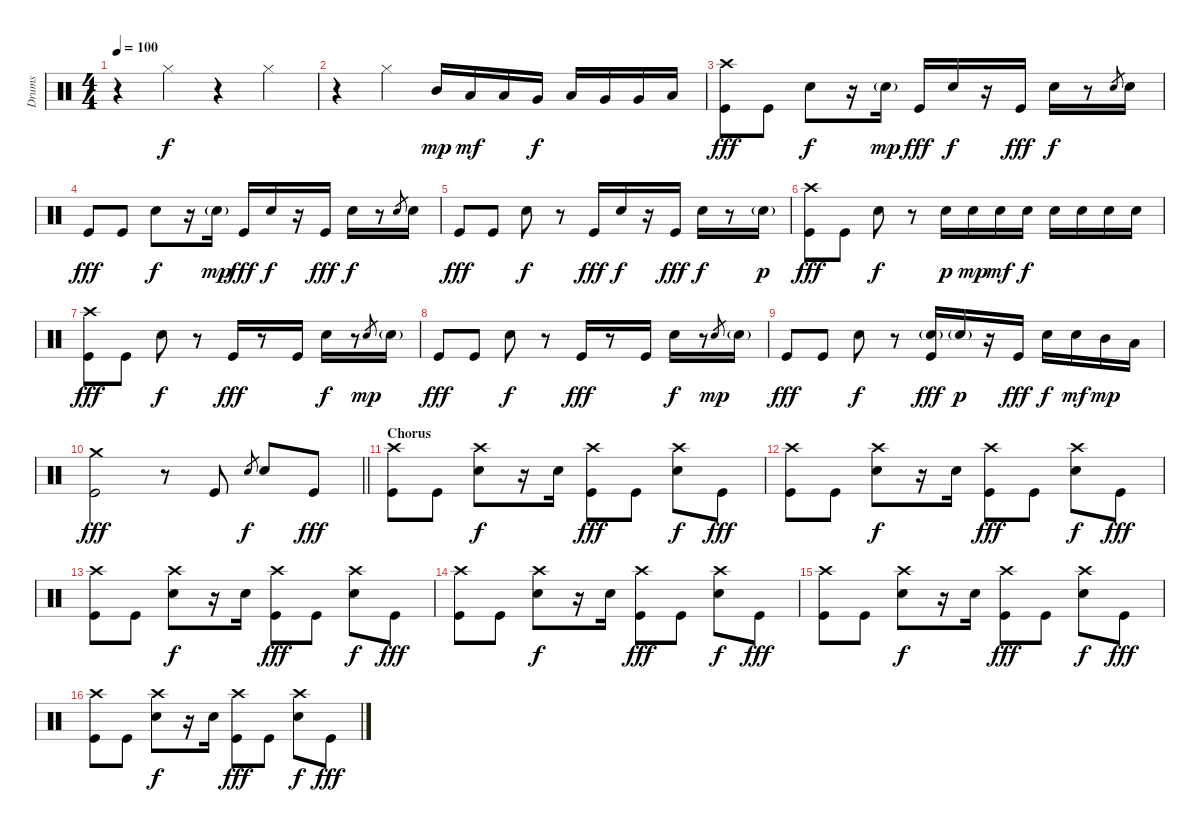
\track ("Drums" "Drums") {instrument percussion}
\staff {score}
\articulation defaults
\ts (4 4)
\tempo 100
\clef neutral
\ks c
r.4{dy f} "Hi-Hat (closed)".4 r.4 "Hi-Hat (closed)".4 |
r.4 "Hi-Hat (closed)".4 "Mid Tom (hit)".16{dy mp} "Low Tom (hit)".16{dy mf} "Low Tom (hit)".16 "Very Low Tom (hit)".16{dy f} "Low Tom (hit)".16 "Very Low Tom (hit)".16 "Very Low Tom (hit)".16 "Low Floor Tom (hit)".16 |
("Crash high (hit)" "Kick (hit)").8{dy fff} "Kick (hit)".8 "Electric Snare (hit)".8{dy f} r.16 "Electric Snare (hit)"{g}.16{dy mp} "Kick (hit)".16{dy fff} "Electric Snare (hit)".16{dy f} r.16 "Kick (hit)".16{dy fff} "Electric Snare (hit)".16{dy f} r.8 "Electric Snare (hit)".8{gr} "Electric Snare (hit)".16 |
"Kick (hit)".8{dy fff} "Kick (hit)".8 "Electric Snare (hit)".8{dy f} r.16 "Electric Snare (hit)"{g}.16{dy mp} "Kick (hit)".16{dy fff} "Electric Snare (hit)".16{dy f} r.16 "Kick (hit)".16{dy fff} "Electric Snare (hit)".16{dy f} r.8 "Electric Snare (hit)".8{gr} "Electric Snare (hit)".16 |
"Kick (hit)".8{dy fff} "Kick (hit)".8 "Electric Snare (hit)".8{dy f} r.8 "Kick (hit)".16{dy fff} "Electric Snare (hit)".16{dy f} r.16 "Kick (hit)".16{dy fff} "Electric Snare (hit)".16{dy f} r.8 "Electric Snare (hit)"{g}.16{dy p} |
("Crash high (hit)" "Kick (hit)").8{dy fff} "Kick (hit)".8 "Electric Snare (hit)".8{dy f} r.8 "Electric Snare (hit)".16{dy p} "Electric Snare (hit)".16{dy mp} "Electric Snare (hit)".16{dy mf} "Electric Snare (hit)".16{dy f} "Electric Snare (hit)".16 "Electric Snare (hit)".16 "Electric Snare (hit)".16 "Electric Snare (hit)".16 |
("Crash high (hit)" "Kick (hit)").8{dy fff} "Kick (hit)".8 "Electric Snare (hit)".8{dy f} r.8 "Kick (hit)".16{dy fff} r.8 "Kick (hit)".16 "Electric Snare (hit)".16{dy f} r.8 "Electric Snare (hit)".8{gr dy mp} "Electric Snare (hit)"{g}.16 |
"Kick (hit)".8{dy fff} "Kick (hit)".8 "Electric Snare (hit)".8{dy f} r.8 "Kick (hit)".16{dy fff} r.8 "Kick (hit)".16 "Electric Snare (hit)".16{dy f} r.8 "Electric Snare (hit)".8{gr dy mp} "Electric Snare (hit)"{g}.16 |
"Kick (hit)".8{dy fff} "Kick (hit)".8 "Electric Snare (hit)".8{dy f} r.8 ("Electric Snare (hit)"{g} "Kick (hit)").16{dy fff} "Electric Snare (hit)"{g}.16{dy p} r.16 "Kick (hit)".16{dy fff} "Electric Snare (hit)".16{dy f} "Electric Snare (hit)".16{dy mf} "Mid Tom (hit)".16{dy mp} "Low Tom (hit)".16 |
\barLineRight lightlight
("Crash medium (hit)" "Kick (hit)").2{dy fff} r.8 "Kick (hit)".8 "Electric Snare (hit)".8{gr dy f} "Electric Snare (hit)".8 "Kick (hit)".8{dy fff} |
\section ("" "Chorus")
("Crash high (hit)" "Kick (hit)").8 "Kick (hit)".8 ("Crash high (hit)" "Electric Snare (hit)").8{dy f} r.16 "Electric Snare (hit)".16 ("Crash high (hit)" "Kick (hit)").8{dy fff} "Kick (hit)".8 ("Crash high (hit)" "Electric Snare (hit)").8{dy f} "Kick (hit)".8{dy fff} |
("Crash high (hit)" "Kick (hit)").8 "Kick (hit)".8 ("Crash high (hit)" "Electric Snare (hit)").8{dy f} r.16 "Electric Snare (hit)".16 ("Crash high (hit)" "Kick (hit)").8{dy fff} "Kick (hit)".8 ("Crash high (hit)" "Electric Snare (hit)").8{dy f} "Kick (hit)".8{dy fff} |
("Crash high (hit)" "Kick (hit)").8 "Kick (hit)".8 ("Crash high (hit)" "Electric Snare (hit)").8{dy f} r.16 "Electric Snare (hit)".16 ("Crash high (hit)" "Kick (hit)").8{dy fff} "Kick (hit)".8 ("Crash high (hit)" "Electric Snare (hit)").8{dy f} "Kick (hit)".8{dy fff} |
("Crash high (hit)" "Kick (hit)").8 "Kick (hit)".8 ("Crash high (hit)" "Electric Snare (hit)").8{dy f} r.16 "Electric Snare (hit)".16 ("Crash high (hit)" "Kick (hit)").8{dy fff} "Kick (hit)".8 ("Crash high (hit)" "Electric Snare (hit)").8{dy f} "Kick (hit)".8{dy fff} |
("Crash high (hit)" "Kick (hit)").8 "Kick (hit)".8 ("Crash high (hit)" "Electric Snare (hit)").8{dy f} r.16 "Electric Snare (hit)".16 ("Crash high (hit)" "Kick (hit)").8{dy fff} "Kick (hit)".8 ("Crash high (hit)" "Electric Snare (hit)").8{dy f} "Kick (hit)".8{dy fff} |
("Crash high (hit)" "Kick (hit)").8 "Kick (hit)".8 ("Crash high (hit)" "Electric Snare (hit)").8{dy f} r.16 "Electric Snare (hit)".16 ("Crash high (hit)" "Kick (hit)").8{dy fff} "Kick (hit)".8 ("Crash high (hit)" "Electric Snare (hit)").8{dy f} "Kick (hit)".8{dy fff}
